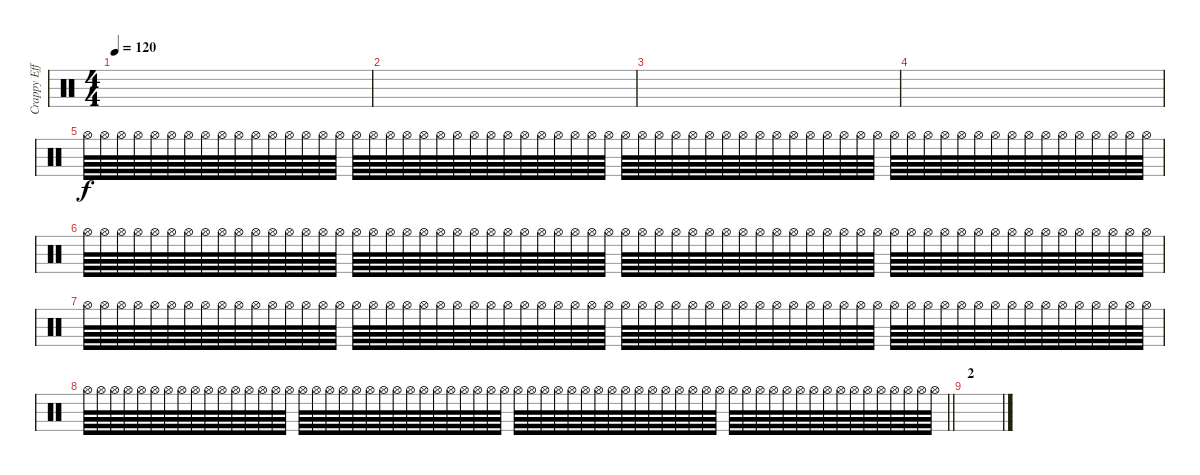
\track ("Crappy Effects" "Crappy Eff") {instrument percussion}
\staff {score}
\articulation defaults
\ts (4 4)
\tempo 120
\clef neutral
\ks c
|
|
|
|
"Hi-Hat (open)".64 "Hi-Hat (open)".64 "Hi-Hat (open)".64 "Hi-Hat (open)".64 "Hi-Hat (open)".64 "Hi-Hat (open)".64 "Hi-Hat (open)".64 "Hi-Hat (open)".64 "Hi-Hat (open)".64 "Hi-Hat (open)".64 "Hi-Hat (open)".64 "Hi-Hat (open)".64 "Hi-Hat (open)".64 "Hi-Hat (open)".64 "Hi-Hat (open)".64 "Hi-Hat (open)".64 "Hi-Hat (open)".64 "Hi-Hat (open)".64 "Hi-Hat (open)".64 "Hi-Hat (open)".64 "Hi-Hat (open)".64 "Hi-Hat (open)".64 "Hi-Hat (open)".64 "Hi-Hat (open)".64 "Hi-Hat (open)".64 "Hi-Hat (open)".64 "Hi-Hat (open)".64 "Hi-Hat (open)".64 "Hi-Hat (open)".64 "Hi-Hat (open)".64 "Hi-Hat (open)".64 "Hi-Hat (open)".64 "Hi-Hat (open)".64 "Hi-Hat (open)".64 "Hi-Hat (open)".64 "Hi-Hat (open)".64 "Hi-Hat (open)".64 "Hi-Hat (open)".64 "Hi-Hat (open)".64 "Hi-Hat (open)".64 "Hi-Hat (open)".64 "Hi-Hat (open)".64 "Hi-Hat (open)".64 "Hi-Hat (open)".64 "Hi-Hat (open)".64 "Hi-Hat (open)".64 "Hi-Hat (open)".64 "Hi-Hat (open)".64 "Hi-Hat (open)".64 "Hi-Hat (open)".64 "Hi-Hat (open)".64 "Hi-Hat (open)".64 "Hi-Hat (open)".64 "Hi-Hat (open)".64 "Hi-Hat (open)".64 "Hi-Hat (open)".64 "Hi-Hat (open)".64 "Hi-Hat (open)".64 "Hi-Hat (open)".64 "Hi-Hat (open)".64 "Hi-Hat (open)".64 "Hi-Hat (open)".64 "Hi-Hat (open)".64 "Hi-Hat (open)".64 |
"Hi-Hat (open)".64 "Hi-Hat (open)".64 "Hi-Hat (open)".64 "Hi-Hat (open)".64 "Hi-Hat (open)".64 "Hi-Hat (open)".64 "Hi-Hat (open)".64 "Hi-Hat (open)".64 "Hi-Hat (open)".64 "Hi-Hat (open)".64 "Hi-Hat (open)".64 "Hi-Hat (open)".64 "Hi-Hat (open)".64 "Hi-Hat (open)".64 "Hi-Hat (open)".64 "Hi-Hat (open)".64 "Hi-Hat (open)".64 "Hi-Hat (open)".64 "Hi-Hat (open)".64 "Hi-Hat (open)".64 "Hi-Hat (open)".64 "Hi-Hat (open)".64 "Hi-Hat (open)".64 "Hi-Hat (open)".64 "Hi-Hat (open)".64 "Hi-Hat (open)".64 "Hi-Hat (open)".64 "Hi-Hat (open)".64 "Hi-Hat (open)".64 "Hi-Hat (open)".64 "Hi-Hat (open)".64 "Hi-Hat (open)".64 "Hi-Hat (open)".64 "Hi-Hat (open)".64 "Hi-Hat (open)".64 "Hi-Hat (open)".64 "Hi-Hat (open)".64 "Hi-Hat (open)".64 "Hi-Hat (open)".64 "Hi-Hat (open)".64 "Hi-Hat (open)".64 "Hi-Hat (open)".64 "Hi-Hat (open)".64 "Hi-Hat (open)".64 "Hi-Hat (open)".64 "Hi-Hat (open)".64 "Hi-Hat (open)".64 "Hi-Hat (open)".64 "Hi-Hat (open)".64 "Hi-Hat (open)".64 "Hi-Hat (open)".64 "Hi-Hat (open)".64 "Hi-Hat (open)".64 "Hi-Hat (open)".64 "Hi-Hat (open)".64 "Hi-Hat (open)".64 "Hi-Hat (open)".64 "Hi-Hat (open)".64 "Hi-Hat (open)".64 "Hi-Hat (open)".64 "Hi-Hat (open)".64 "Hi-Hat (open)".64 "Hi-Hat (open)".64 "Hi-Hat (open)".64 |
"Hi-Hat (open)".64 "Hi-Hat (open)".64 "Hi-Hat (open)".64 "Hi-Hat (open)".64 "Hi-Hat (open)".64 "Hi-Hat (open)".64 "Hi-Hat (open)".64 "Hi-Hat (open)".64 "Hi-Hat (open)".64 "Hi-Hat (open)".64 "Hi-Hat (open)".64 "Hi-Hat (open)".64 "Hi-Hat (open)".64 "Hi-Hat (open)".64 "Hi-Hat (open)".64 "Hi-Hat (open)".64 "Hi-Hat (open)".64 "Hi-Hat (open)".64 "Hi-Hat (open)".64 "Hi-Hat (open)".64 "Hi-Hat (open)".64 "Hi-Hat (open)".64 "Hi-Hat (open)".64 "Hi-Hat (open)".64 "Hi-Hat (open)".64 "Hi-Hat (open)".64 "Hi-Hat (open)".64 "Hi-Hat (open)".64 "Hi-Hat (open)".64 "Hi-Hat (open)".64 "Hi-Hat (open)".64 "Hi-Hat (open)".64 "Hi-Hat (open)".64 "Hi-Hat (open)".64 "Hi-Hat (open)".64 "Hi-Hat (open)".64 "Hi-Hat (open)".64 "Hi-Hat (open)".64 "Hi-Hat (open)".64 "Hi-Hat (open)".64 "Hi-Hat (open)".64 "Hi-Hat (open)".64 "Hi-Hat (open)".64 "Hi-Hat (open)".64 "Hi-Hat (open)".64 "Hi-Hat (open)".64 "Hi-Hat (open)".64 "Hi-Hat (open)".64 "Hi-Hat (open)".64 "Hi-Hat (open)".64 "Hi-Hat (open)".64 "Hi-Hat (open)".64 "Hi-Hat (open)".64 "Hi-Hat (open)".64 "Hi-Hat (open)".64 "Hi-Hat (open)".64 "Hi-Hat (open)".64 "Hi-Hat (open)".64 "Hi-Hat (open)".64 "Hi-Hat (open)".64 "Hi-Hat (open)".64 "Hi-Hat (open)".64 "Hi-Hat (open)".64 "Hi-Hat (open)".64 |
\barLineRight lightlight "Hi-Hat (open)".64 "Hi-Hat (open)".64 "Hi-Hat (open)".64 "Hi-Hat (open)".64 "Hi-Hat (open)".64 "Hi-Hat (open)".64 "Hi-Hat (open)".64 "Hi-Hat (open)".64 "Hi-Hat (open)".64 "Hi-Hat (open)".64 "Hi-Hat (open)".64 "Hi-Hat (open)".64 "Hi-Hat (open)".64 "Hi-Hat (open)".64 "Hi-Hat (open)".64 "Hi-Hat (open)".64 "Hi-Hat (open)".64 "Hi-Hat (open)".64 "Hi-Hat (open)".64 "Hi-Hat (open)".64 "Hi-Hat (open)".64 "Hi-Hat (open)".64 "Hi-Hat (open)".64 "Hi-Hat (open)".64 "Hi-Hat (open)".64 "Hi-Hat (open)".64 "Hi-Hat (open)".64 "Hi-Hat (open)".64 "Hi-Hat (open)".64 "Hi-Hat (open)".64 "Hi-Hat (open)".64 "Hi-Hat (open)".64 "Hi-Hat (open)".64 "Hi-Hat (open)".64 "Hi-Hat (open)".64 "Hi-Hat (open)".64 "Hi-Hat (open)".64 "Hi-Hat (open)".64 "Hi-Hat (open)".64 "Hi-Hat (open)".64 "Hi-Hat (open)".64 "Hi-Hat (open)".64 "Hi-Hat (open)".64 "Hi-Hat (open)".64 "Hi-Hat (open)".64 "Hi-Hat (open)".64 "Hi-Hat (open)".64 "Hi-Hat (open)".64 "Hi-Hat (open)".64 "Hi-Hat (open)".64 "Hi-Hat (open)".64 "Hi-Hat (open)".64 "Hi-Hat (open)".64 "Hi-Hat (open)".64 "Hi-Hat (open)".64 "Hi-Hat (open)".64 "Hi-Hat (open)".64 "Hi-Hat (open)".64 "Hi-Hat (open)".64 "Hi-Hat (open)".64 "Hi-Hat (open)".64 "Hi-Hat (open)".64 "Hi-Hat (open)".64 "Hi-Hat (open)".64
|
\section ("" "2")
